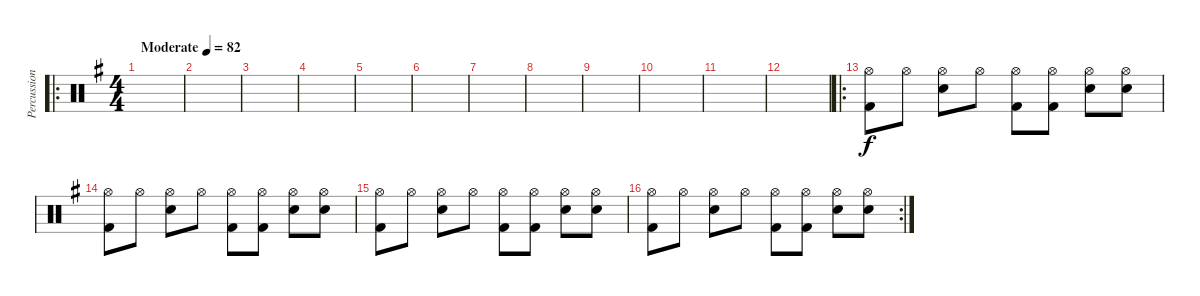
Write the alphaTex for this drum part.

\track ("Percussions" "Percussion") {instrument percussion}
\staff {score}
\articulation defaults
\ro
\ts (4 4)
\tempo (82 "Moderate")
\clef neutral
\ks g
|
|
|
|
|
|
|
|
|
|
|
|
\ro
("Hi-Hat (open)" "Kick (hit) 2").8 "Hi-Hat (open)".8 ("Hi-Hat (open)" "Snare (hit) 2").8 "Hi-Hat (open)".8 ("Hi-Hat (open)" "Kick (hit) 2").8 ("Hi-Hat (open)" "Kick (hit) 2").8 ("Hi-Hat (open)" "Snare (hit) 2").8 ("Hi-Hat (open)" "Snare (hit) 2").8 |
("Hi-Hat (open)" "Kick (hit) 2").8 "Hi-Hat (open)".8 ("Hi-Hat (open)" "Snare (hit) 2").8 "Hi-Hat (open)".8 ("Hi-Hat (open)" "Kick (hit) 2").8 ("Hi-Hat (open)" "Kick (hit) 2").8 ("Hi-Hat (open)" "Snare (hit) 2").8 ("Hi-Hat (open)" "Snare (hit) 2").8 |
("Hi-Hat (open)" "Kick (hit) 2").8 "Hi-Hat (open)".8 ("Hi-Hat (open)" "Snare (hit) 2").8 "Hi-Hat (open)".8 ("Hi-Hat (open)" "Kick (hit) 2").8 ("Hi-Hat (open)" "Kick (hit) 2").8 ("Hi-Hat (open)" "Snare (hit) 2").8 ("Hi-Hat (open)" "Snare (hit) 2").8 |
\rc 2
("Hi-Hat (open)" "Kick (hit) 2").8 "Hi-Hat (open)".8 ("Hi-Hat (open)" "Snare (hit) 2").8 "Hi-Hat (open)".8 ("Hi-Hat (open)" "Kick (hit) 2").8 ("Hi-Hat (open)" "Kick (hit) 2").8 ("Hi-Hat (open)" "Snare (hit) 2").8 ("Hi-Hat (open)" "Snare (hit) 2").8
